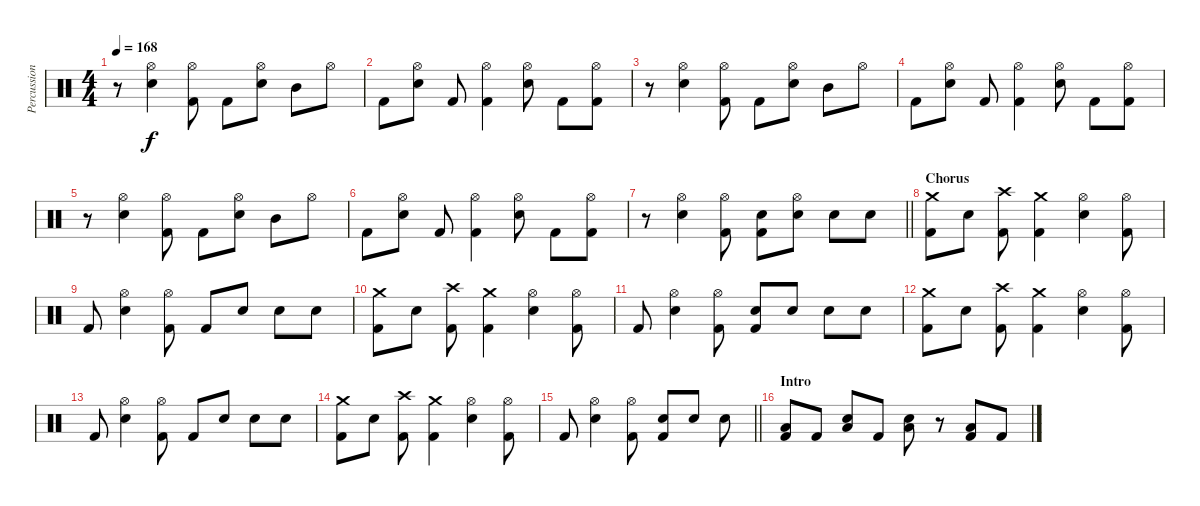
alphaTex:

\track ("Percussion" "Percussion") {instrument percussion}
\staff {score}
\articulation defaults
\ts (4 4)
\tempo 168
\clef neutral
\ks c
r.8{dy f} ("Hi-Hat (open)" "Snare (hit) 2").4 ("Hi-Hat (open)" "Kick (hit) 2").8 "Kick (hit) 2".8 ("Hi-Hat (open)" "Snare (hit) 2").8 "Mid Tom (hit)".8 "Hi-Hat (open)".8 |
"Kick (hit) 2".8 ("Hi-Hat (open)" "Snare (hit) 2").8 "Kick (hit) 2".8 ("Hi-Hat (open)" "Kick (hit) 2").4 ("Hi-Hat (open)" "Snare (hit) 2").8 "Kick (hit) 2".8 ("Hi-Hat (open)" "Kick (hit) 2").8 |
r.8 ("Hi-Hat (open)" "Snare (hit) 2").4 ("Hi-Hat (open)" "Kick (hit) 2").8 "Kick (hit) 2".8 ("Hi-Hat (open)" "Snare (hit) 2").8 "Mid Tom (hit)".8 "Hi-Hat (open)".8 |
"Kick (hit) 2".8 ("Hi-Hat (open)" "Snare (hit) 2").8 "Kick (hit) 2".8 ("Hi-Hat (open)" "Kick (hit) 2").4 ("Hi-Hat (open)" "Snare (hit) 2").8 "Kick (hit) 2".8 ("Hi-Hat (open)" "Kick (hit) 2").8 |
r.8 ("Hi-Hat (open)" "Snare (hit) 2").4 ("Hi-Hat (open)" "Kick (hit) 2").8 "Kick (hit) 2".8 ("Hi-Hat (open)" "Snare (hit) 2").8 "Mid Tom (hit)".8 "Hi-Hat (open)".8 |
"Kick (hit) 2".8 ("Hi-Hat (open)" "Snare (hit) 2").8 "Kick (hit) 2".8 ("Hi-Hat (open)" "Kick (hit) 2").4 ("Hi-Hat (open)" "Snare (hit) 2").8 "Kick (hit) 2".8 ("Hi-Hat (open)" "Kick (hit) 2").8 |
\barLineRight lightlight
r.8 ("Hi-Hat (open)" "Snare (hit) 2").4 ("Hi-Hat (open)" "Kick (hit) 2").8 ("Snare (hit) 2" "Kick (hit) 2").8 ("Hi-Hat (open)" "Snare (hit) 2").8 "Snare (hit) 2".8 "Snare (hit) 2".8 |
\section ("" "Chorus")
("Crash medium (hit)" "Kick (hit) 2").8 "Snare (hit) 2".8 ("Crash high (hit)" "Kick (hit) 2").8 ("Crash medium (hit)" "Kick (hit) 2").4 ("Hi-Hat (open)" "Snare (hit) 2").4 ("Hi-Hat (open)" "Kick (hit) 2").8 |
"Kick (hit) 2".8 ("Hi-Hat (open)" "Snare (hit) 2").4 ("Hi-Hat (open)" "Kick (hit) 2").8 "Kick (hit) 2".8 "Snare (hit) 2".8 "Snare (hit) 2".8 "Snare (hit) 2".8 |
("Crash medium (hit)" "Kick (hit) 2").8 "Snare (hit) 2".8 ("Crash high (hit)" "Kick (hit) 2").8 ("Crash medium (hit)" "Kick (hit) 2").4 ("Hi-Hat (open)" "Snare (hit) 2").4 ("Hi-Hat (open)" "Kick (hit) 2").8 |
"Kick (hit) 2".8 ("Hi-Hat (open)" "Snare (hit) 2").4 ("Hi-Hat (open)" "Kick (hit) 2").8 ("Snare (hit) 2" "Kick (hit) 2").8 "Snare (hit) 2".8 "Snare (hit) 2".8 "Snare (hit) 2".8 |
("Crash medium (hit)" "Kick (hit) 2").8 "Snare (hit) 2".8 ("Crash high (hit)" "Kick (hit) 2").8 ("Crash medium (hit)" "Kick (hit) 2").4 ("Hi-Hat (open)" "Snare (hit) 2").4 ("Hi-Hat (open)" "Kick (hit) 2").8 |
"Kick (hit) 2".8 ("Hi-Hat (open)" "Snare (hit) 2").4 ("Hi-Hat (open)" "Kick (hit) 2").8 "Kick (hit) 2".8 "Snare (hit) 2".8 "Snare (hit) 2".8 "Snare (hit) 2".8 |
("Crash medium (hit)" "Kick (hit) 2").8 "Snare (hit) 2".8 ("Crash high (hit)" "Kick (hit) 2").8 ("Crash medium (hit)" "Kick (hit) 2").4 ("Hi-Hat (open)" "Snare (hit) 2").4 ("Hi-Hat (open)" "Kick (hit) 2").8 |
\barLineRight lightlight "Kick (hit) 2".8
("Hi-Hat (open)" "Snare (hit) 2").4 ("Hi-Hat (open)" "Kick (hit) 2").8 ("Snare (hit) 2" "Kick (hit) 2").8 "Snare (hit) 2".8 "Snare (hit) 2".8 |
\section ("" "Intro")
("Low Tom (hit)" "Kick (hit) 2").8 "Kick (hit) 2".8 ("Low Tom (hit)" "Snare (hit) 2").8 "Kick (hit) 2".8 ("Low Tom (hit)" "Snare (hit) 2").8 r.8 ("Low Tom (hit)" "Kick (hit) 2").8 "Kick (hit) 2".8
